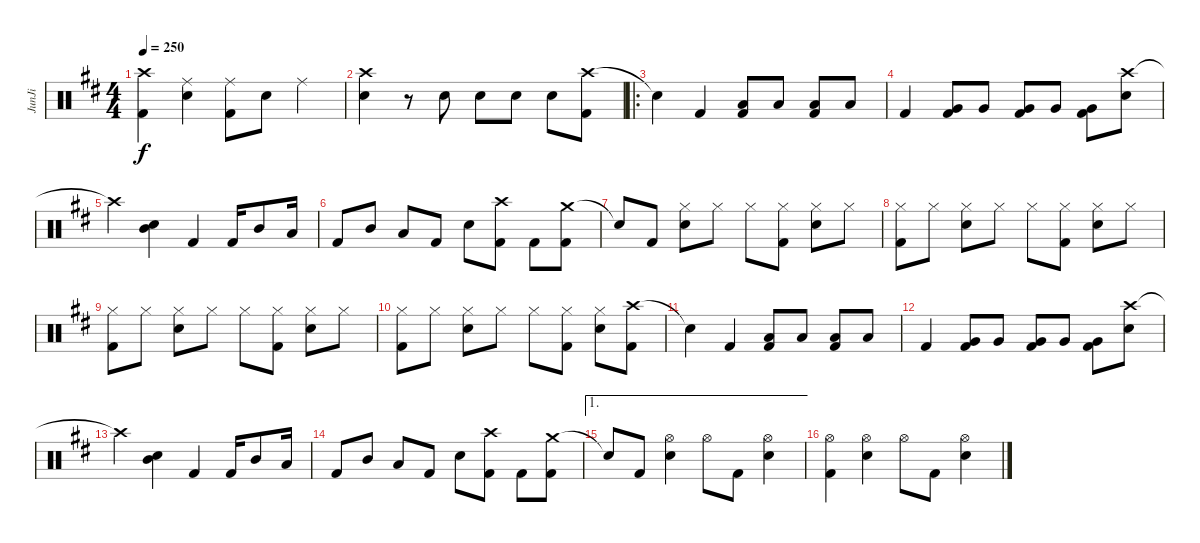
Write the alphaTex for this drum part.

\track ("JunJi" "JunJi") {instrument percussion}
\staff {score}
\articulation defaults
\ts (4 4)
\tempo 250
\clef neutral
\ks d
("Crash high (hit)" "Kick (hit) 2").4{dy f} ("Ride (middle)" "Snare (hit) 2").4 ("Ride (middle)" "Kick (hit) 2").8 "Snare (hit) 2".8 "Ride (middle)".4 |
("Crash high (hit)" "Snare (hit) 2").4 r.8 "Snare (hit) 2".8 "Snare (hit) 2".8 "Snare (hit) 2".8 "Snare (hit) 2".8 ("Crash high (hit)" "Kick (hit) 2").8 |
\ro "Snare (hit)"{t}.4 "Kick (hit) 2".4
("Low Tom (hit)" "Kick (hit) 2").8 "Low Tom (hit)".8 ("Low Tom (hit)" "Kick (hit) 2").8 "Low Tom (hit)".8 |
"Kick (hit) 2".4 ("Very Low Tom (hit)" "Kick (hit) 2").8 "Very Low Tom (hit)".8 ("Very Low Tom (hit)" "Kick (hit) 2").8 "Very Low Tom (hit)".8 ("Very Low Tom (hit)" "Kick (hit) 2").8 ("Crash high (hit)" "Snare (hit) 2").8 |
"Crash high (hit)"{t}.4 ("Mid Tom (hit)" "Snare (hit) 2").4 "Kick (hit) 2".4 "Kick (hit) 2".16 "Mid Tom (hit)".8 "Low Tom (hit)".16 |
"Kick (hit) 2".8 "Mid Tom (hit)".8 "Low Tom (hit)".8 "Kick (hit) 2".8 "Snare (hit) 2".8 ("Crash high (hit)" "Kick (hit) 2").8 "Kick (hit) 2".8 ("Crash medium (hit)" "Kick (hit) 2").8 |
"Snare (hit)"{t}.8 "Kick (hit) 2".8 ("Hi-Hat (closed)" "Snare (hit) 2").8 "Hi-Hat (closed)".8 "Hi-Hat (closed)".8 ("Hi-Hat (closed)" "Kick (hit) 2").8 ("Hi-Hat (closed)" "Snare (hit) 2").8 "Hi-Hat (closed)".8 |
("Hi-Hat (closed)" "Kick (hit) 2").8 "Hi-Hat (closed)".8 ("Hi-Hat (closed)" "Snare (hit) 2").8 "Hi-Hat (closed)".8 "Hi-Hat (closed)".8 ("Hi-Hat (closed)" "Kick (hit) 2").8 ("Hi-Hat (closed)" "Snare (hit) 2").8 "Hi-Hat (closed)".8 |
("Hi-Hat (closed)" "Kick (hit) 2").8 "Hi-Hat (closed)".8 ("Hi-Hat (closed)" "Snare (hit) 2").8 "Hi-Hat (closed)".8 "Hi-Hat (closed)".8 ("Hi-Hat (closed)" "Kick (hit) 2").8 ("Hi-Hat (closed)" "Snare (hit) 2").8 "Hi-Hat (closed)".8 |
("Hi-Hat (closed)" "Kick (hit) 2").8 "Hi-Hat (closed)".8 ("Hi-Hat (closed)" "Snare (hit) 2").8 "Hi-Hat (closed)".8 "Hi-Hat (closed)".8 ("Hi-Hat (closed)" "Kick (hit) 2").8 ("Hi-Hat (closed)" "Snare (hit) 2").8 ("Crash high (hit)" "Kick (hit) 2").8 |
"Snare (hit)"{t}.4 "Kick (hit) 2".4 ("Low Tom (hit)" "Kick (hit) 2").8 "Low Tom (hit)".8 ("Low Tom (hit)" "Kick (hit) 2").8 "Low Tom (hit)".8 |
"Kick (hit) 2".4 ("Very Low Tom (hit)" "Kick (hit) 2").8 "Very Low Tom (hit)".8 ("Very Low Tom (hit)" "Kick (hit) 2").8 "Very Low Tom (hit)".8 ("Very Low Tom (hit)" "Kick (hit) 2").8 ("Crash high (hit)" "Snare (hit) 2").8 |
"Crash high (hit)"{t}.4 ("Mid Tom (hit)" "Snare (hit) 2").4 "Kick (hit) 2".4 "Kick (hit) 2".16 "Mid Tom (hit)".8 "Low Tom (hit)".16 |
"Kick (hit) 2".8 "Mid Tom (hit)".8 "Low Tom (hit)".8 "Kick (hit) 2".8 "Snare (hit) 2".8 ("Crash high (hit)" "Kick (hit) 2").8 "Kick (hit) 2".8 ("Crash medium (hit)" "Kick (hit) 2").8 |
\ae 1 "Snare (hit)"{t}.8 "Kick (hit) 2".8
("Hi-Hat (open)" "Snare (hit) 2").4 "Hi-Hat (open)".8 "Kick (hit) 2".8 ("Hi-Hat (open)" "Snare (hit) 2").4 |
("Hi-Hat (open)" "Kick (hit) 2").4 ("Hi-Hat (open)" "Snare (hit) 2").4 "Hi-Hat (open)".8 "Kick (hit) 2".8 ("Hi-Hat (open)" "Snare (hit) 2").4
